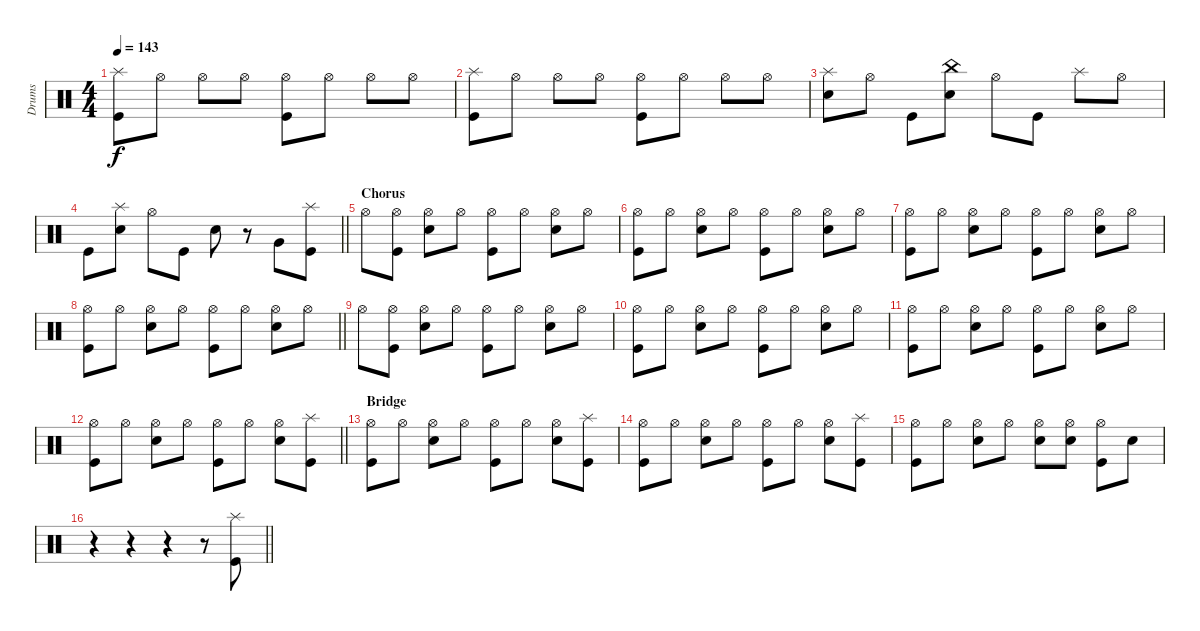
\track ("Drums" "Drums") {instrument percussion}
\staff
\articulation defaults
\ts (4 4)
\tempo 143
\clef neutral
\ks c
("Splash (hit)" "Kick (hit)").8{dy f} "Hi-Hat (open)".8 "Hi-Hat (open)".8 "Hi-Hat (open)".8 ("Hi-Hat (open)" "Kick (hit)").8 "Hi-Hat (open)".8 "Hi-Hat (open)".8 "Hi-Hat (open)".8 |
("Splash (hit)" "Kick (hit)").8 "Hi-Hat (open)".8 "Hi-Hat (open)".8 "Hi-Hat (open)".8 ("Hi-Hat (open)" "Kick (hit)").8 "Hi-Hat (open)".8 "Hi-Hat (open)".8 "Hi-Hat (open)".8 |
("Splash (hit)" "Snare (hit) 2").8 "Hi-Hat (open)".8 "Kick (hit)".8 ("China (hit)" "Snare (hit) 2").8 "Hi-Hat (open)".8 "Kick (hit)".8 "Splash (hit)".8 "Hi-Hat (open)".8 |
\barLineRight lightlight "Kick (hit)".8
("Splash (hit)" "Snare (hit) 2").8 "Hi-Hat (open)".8 "Kick (hit)".8 "Snare (hit) 2".8 r.8 "Very Low Tom (hit)".8 ("Splash (hit)" "Kick (hit)").8 |
\section ("" "Chorus")
"Hi-Hat (open)".8 ("Hi-Hat (open)" "Kick (hit)").8 ("Hi-Hat (open)" "Snare (hit) 2").8 "Hi-Hat (open)".8 ("Hi-Hat (open)" "Kick (hit)").8 "Hi-Hat (open)".8 ("Hi-Hat (open)" "Snare (hit) 2").8 "Hi-Hat (open)".8 |
("Hi-Hat (open)" "Kick (hit)").8 "Hi-Hat (open)".8 ("Hi-Hat (open)" "Snare (hit) 2").8 "Hi-Hat (open)".8 ("Hi-Hat (open)" "Kick (hit)").8 "Hi-Hat (open)".8 ("Hi-Hat (open)" "Snare (hit) 2").8 "Hi-Hat (open)".8 |
("Hi-Hat (open)" "Kick (hit)").8 "Hi-Hat (open)".8 ("Hi-Hat (open)" "Snare (hit) 2").8 "Hi-Hat (open)".8 ("Hi-Hat (open)" "Kick (hit)").8 "Hi-Hat (open)".8 ("Hi-Hat (open)" "Snare (hit) 2").8 "Hi-Hat (open)".8 |
\barLineRight lightlight
("Hi-Hat (open)" "Kick (hit)").8 "Hi-Hat (open)".8 ("Hi-Hat (open)" "Snare (hit) 2").8 "Hi-Hat (open)".8 ("Hi-Hat (open)" "Kick (hit)").8 "Hi-Hat (open)".8 ("Hi-Hat (open)" "Snare (hit) 2").8 "Hi-Hat (open)".8 |
"Hi-Hat (open)".8 ("Hi-Hat (open)" "Kick (hit)").8 ("Hi-Hat (open)" "Snare (hit) 2").8 "Hi-Hat (open)".8 ("Hi-Hat (open)" "Kick (hit)").8 "Hi-Hat (open)".8 ("Hi-Hat (open)" "Snare (hit) 2").8 "Hi-Hat (open)".8 |
("Hi-Hat (open)" "Kick (hit)").8 "Hi-Hat (open)".8 ("Hi-Hat (open)" "Snare (hit) 2").8 "Hi-Hat (open)".8 ("Hi-Hat (open)" "Kick (hit)").8 "Hi-Hat (open)".8 ("Hi-Hat (open)" "Snare (hit) 2").8 "Hi-Hat (open)".8 |
("Hi-Hat (open)" "Kick (hit)").8 "Hi-Hat (open)".8 ("Hi-Hat (open)" "Snare (hit) 2").8 "Hi-Hat (open)".8 ("Hi-Hat (open)" "Kick (hit)").8 "Hi-Hat (open)".8 ("Hi-Hat (open)" "Snare (hit) 2").8 "Hi-Hat (open)".8 |
\barLineRight lightlight
("Hi-Hat (open)" "Kick (hit)").8 "Hi-Hat (open)".8 ("Hi-Hat (open)" "Snare (hit) 2").8 "Hi-Hat (open)".8 ("Hi-Hat (open)" "Kick (hit)").8 "Hi-Hat (open)".8 ("Hi-Hat (open)" "Snare (hit) 2").8 ("Splash (hit)" "Kick (hit)").8 |
\section ("" "Bridge")
("Hi-Hat (open)" "Kick (hit)").8 "Hi-Hat (open)".8 ("Hi-Hat (open)" "Snare (hit) 2").8 "Hi-Hat (open)".8 ("Hi-Hat (open)" "Kick (hit)").8 "Hi-Hat (open)".8 ("Hi-Hat (open)" "Snare (hit) 2").8 ("Splash (hit)" "Kick (hit)").8 |
("Hi-Hat (open)" "Kick (hit)").8 "Hi-Hat (open)".8 ("Hi-Hat (open)" "Snare (hit) 2").8 "Hi-Hat (open)".8 ("Hi-Hat (open)" "Kick (hit)").8 "Hi-Hat (open)".8 ("Hi-Hat (open)" "Snare (hit) 2").8 ("Splash (hit)" "Kick (hit)").8 |
("Hi-Hat (open)" "Kick (hit)").8 "Hi-Hat (open)".8 ("Hi-Hat (open)" "Snare (hit) 2").8 "Hi-Hat (open)".8 ("Hi-Hat (open)" "Snare (hit) 2").8 ("Hi-Hat (open)" "Snare (hit) 2").8 ("Hi-Hat (open)" "Kick (hit)").8 "Snare (hit) 2".8 |
\barLineRight lightlight
r.4 r.4 r.4 r.8 ("Splash (hit)" "Kick (hit)").8
